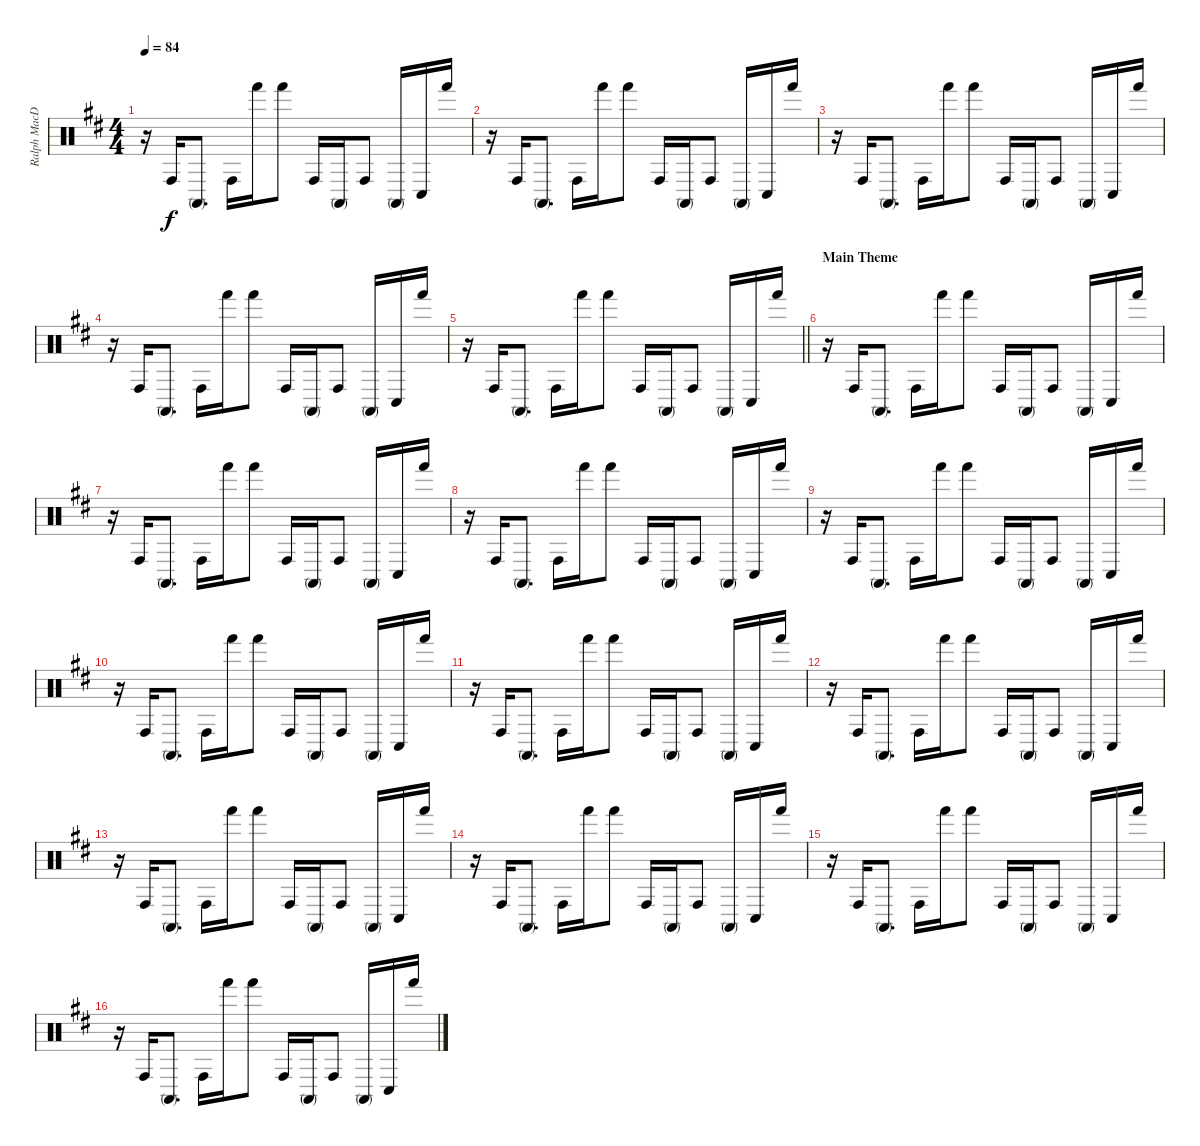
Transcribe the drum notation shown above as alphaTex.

\track ("Ralph MacDonald" "Ralph MacD") {instrument percussion}
\staff {score}
\articulation defaults
\ts (4 4)
\tempo 84
\clef neutral
\ks d
r.16{dy f} "Conga high (hit)".16 "Conga high (mute)".8{d} "Conga high (hit)".16 "Hand (hit)".16 "Hand (hit)".8 "Conga high (hit)".16 "Conga high (mute)".16 "Conga high (hit)".8 "Conga high (mute)".16 "Conga low (hit)".16 "Hand (hit)".16 |
r.16 "Conga high (hit)".16 "Conga high (mute)".8{d} "Conga high (hit)".16 "Hand (hit)".16 "Hand (hit)".8 "Conga high (hit)".16 "Conga high (mute)".16 "Conga high (hit)".8 "Conga high (mute)".16 "Conga low (hit)".16 "Hand (hit)".16 |
r.16 "Conga high (hit)".16 "Conga high (mute)".8{d} "Conga high (hit)".16 "Hand (hit)".16 "Hand (hit)".8 "Conga high (hit)".16 "Conga high (mute)".16 "Conga high (hit)".8 "Conga high (mute)".16 "Conga low (hit)".16 "Hand (hit)".16 |
r.16 "Conga high (hit)".16 "Conga high (mute)".8{d} "Conga high (hit)".16 "Hand (hit)".16 "Hand (hit)".8 "Conga high (hit)".16 "Conga high (mute)".16 "Conga high (hit)".8 "Conga high (mute)".16 "Conga low (hit)".16 "Hand (hit)".16 |
\barLineRight lightlight
r.16 "Conga high (hit)".16 "Conga high (mute)".8{d} "Conga high (hit)".16 "Hand (hit)".16 "Hand (hit)".8 "Conga high (hit)".16 "Conga high (mute)".16 "Conga high (hit)".8 "Conga high (mute)".16 "Conga low (hit)".16 "Hand (hit)".16 |
\section ("" "Main Theme")
r.16 "Conga high (hit)".16 "Conga high (mute)".8{d} "Conga high (hit)".16 "Hand (hit)".16 "Hand (hit)".8 "Conga high (hit)".16 "Conga high (mute)".16 "Conga high (hit)".8 "Conga high (mute)".16 "Conga low (hit)".16 "Hand (hit)".16 |
r.16 "Conga high (hit)".16 "Conga high (mute)".8{d} "Conga high (hit)".16 "Hand (hit)".16 "Hand (hit)".8 "Conga high (hit)".16 "Conga high (mute)".16 "Conga high (hit)".8 "Conga high (mute)".16 "Conga low (hit)".16 "Hand (hit)".16 |
r.16 "Conga high (hit)".16 "Conga high (mute)".8{d} "Conga high (hit)".16 "Hand (hit)".16 "Hand (hit)".8 "Conga high (hit)".16 "Conga high (mute)".16 "Conga high (hit)".8 "Conga high (mute)".16 "Conga low (hit)".16 "Hand (hit)".16 |
r.16 "Conga high (hit)".16 "Conga high (mute)".8{d} "Conga high (hit)".16 "Hand (hit)".16 "Hand (hit)".8 "Conga high (hit)".16 "Conga high (mute)".16 "Conga high (hit)".8 "Conga high (mute)".16 "Conga low (hit)".16 "Hand (hit)".16 |
r.16 "Conga high (hit)".16 "Conga high (mute)".8{d} "Conga high (hit)".16 "Hand (hit)".16 "Hand (hit)".8 "Conga high (hit)".16 "Conga high (mute)".16 "Conga high (hit)".8 "Conga high (mute)".16 "Conga low (hit)".16 "Hand (hit)".16 |
r.16 "Conga high (hit)".16 "Conga high (mute)".8{d} "Conga high (hit)".16 "Hand (hit)".16 "Hand (hit)".8 "Conga high (hit)".16 "Conga high (mute)".16 "Conga high (hit)".8 "Conga high (mute)".16 "Conga low (hit)".16 "Hand (hit)".16 |
r.16 "Conga high (hit)".16 "Conga high (mute)".8{d} "Conga high (hit)".16 "Hand (hit)".16 "Hand (hit)".8 "Conga high (hit)".16 "Conga high (mute)".16 "Conga high (hit)".8 "Conga high (mute)".16 "Conga low (hit)".16 "Hand (hit)".16 |
r.16 "Conga high (hit)".16 "Conga high (mute)".8{d} "Conga high (hit)".16 "Hand (hit)".16 "Hand (hit)".8 "Conga high (hit)".16 "Conga high (mute)".16 "Conga high (hit)".8 "Conga high (mute)".16 "Conga low (hit)".16 "Hand (hit)".16 |
r.16 "Conga high (hit)".16 "Conga high (mute)".8{d} "Conga high (hit)".16 "Hand (hit)".16 "Hand (hit)".8 "Conga high (hit)".16 "Conga high (mute)".16 "Conga high (hit)".8 "Conga high (mute)".16 "Conga low (hit)".16 "Hand (hit)".16 |
r.16 "Conga high (hit)".16 "Conga high (mute)".8{d} "Conga high (hit)".16 "Hand (hit)".16 "Hand (hit)".8 "Conga high (hit)".16 "Conga high (mute)".16 "Conga high (hit)".8 "Conga high (mute)".16 "Conga low (hit)".16 "Hand (hit)".16 |
r.16 "Conga high (hit)".16 "Conga high (mute)".8{d} "Conga high (hit)".16 "Hand (hit)".16 "Hand (hit)".8 "Conga high (hit)".16 "Conga high (mute)".16 "Conga high (hit)".8 "Conga high (mute)".16 "Conga low (hit)".16 "Hand (hit)".16
